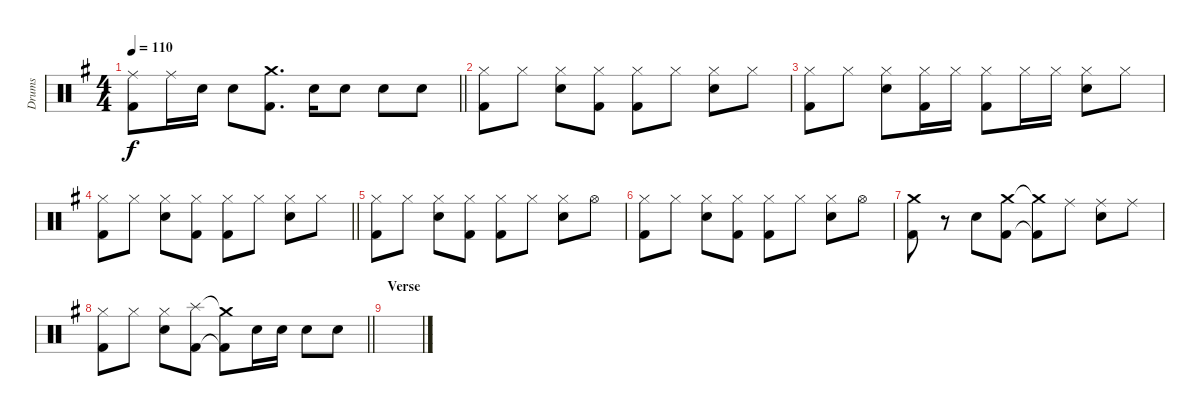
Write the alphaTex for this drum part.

\track ("Drums" "Drums") {instrument percussion}
\staff {score}
\articulation defaults
\ts (4 4)
\tempo 110
\clef neutral
\barLineRight lightlight
\ks g
("Ride (middle)" "Kick (hit) 2").8{dy f} "Ride (middle)".16 "Electric Snare (hit)".16 "Electric Snare (hit)".8 ("Crash medium (hit)" "Kick (hit) 2").8{d} "Electric Snare (hit)".16 "Electric Snare (hit)".8 "Electric Snare (hit)".8 "Electric Snare (hit)".8 |
("Hi-Hat (closed)" "Kick (hit) 2").8 "Hi-Hat (closed)".8 ("Hi-Hat (closed)" "Electric Snare (hit)").8 ("Hi-Hat (closed)" "Kick (hit) 2").8 ("Hi-Hat (closed)" "Kick (hit) 2").8 "Hi-Hat (closed)".8 ("Hi-Hat (closed)" "Electric Snare (hit)").8 "Hi-Hat (closed)".8 |
("Hi-Hat (closed)" "Kick (hit) 2").8 "Hi-Hat (closed)".8 ("Hi-Hat (closed)" "Electric Snare (hit)").8 ("Hi-Hat (closed)" "Kick (hit) 2").16 "Hi-Hat (closed)".16 ("Hi-Hat (closed)" "Kick (hit) 2").8 "Hi-Hat (closed)".16 "Hi-Hat (closed)".16 ("Hi-Hat (closed)" "Electric Snare (hit)").8 "Hi-Hat (closed)".8 |
\barLineRight lightlight
("Hi-Hat (closed)" "Kick (hit) 2").8 "Hi-Hat (closed)".8 ("Hi-Hat (closed)" "Electric Snare (hit)").8 ("Hi-Hat (closed)" "Kick (hit) 2").8 ("Hi-Hat (closed)" "Kick (hit) 2").8 "Hi-Hat (closed)".8 ("Hi-Hat (closed)" "Electric Snare (hit)").8 "Hi-Hat (closed)".8 |
("Hi-Hat (closed)" "Kick (hit) 2").8 "Hi-Hat (closed)".8 ("Hi-Hat (closed)" "Electric Snare (hit)").8 ("Hi-Hat (closed)" "Kick (hit) 2").8 ("Hi-Hat (closed)" "Kick (hit) 2").8 "Hi-Hat (closed)".8 ("Hi-Hat (closed)" "Electric Snare (hit)").8 "Hi-Hat (open)".8 |
("Hi-Hat (closed)" "Kick (hit) 2").8 "Hi-Hat (closed)".8 ("Hi-Hat (closed)" "Electric Snare (hit)").8 ("Hi-Hat (closed)" "Kick (hit) 2").8 ("Hi-Hat (closed)" "Kick (hit) 2").8 "Hi-Hat (closed)".8 ("Hi-Hat (closed)" "Electric Snare (hit)").8 "Hi-Hat (open)".8 |
("Crash medium (hit)" "Kick (hit) 2").8 r.8 "Electric Snare (hit)".8 ("Crash medium (hit)" "Kick (hit) 2").8 ("Crash medium (hit)"{t} "Kick (hit) 2"{t}).8 "Ride (middle)".8 ("Ride (middle)" "Electric Snare (hit)").8 "Ride (middle)".8 |
\barLineRight lightlight
("Hi-Hat (closed)" "Kick (hit) 2").8 "Hi-Hat (closed)".8 ("Hi-Hat (closed)" "Electric Snare (hit)").8 ("Splash (hit)" "Kick (hit) 2").8 ("Crash medium (hit)"{t} "Kick (hit) 2"{t}).8 "Electric Snare (hit)".16 "Electric Snare (hit)".16 "Electric Snare (hit)".8 "Electric Snare (hit)".8 |
\section ("" "Verse")
